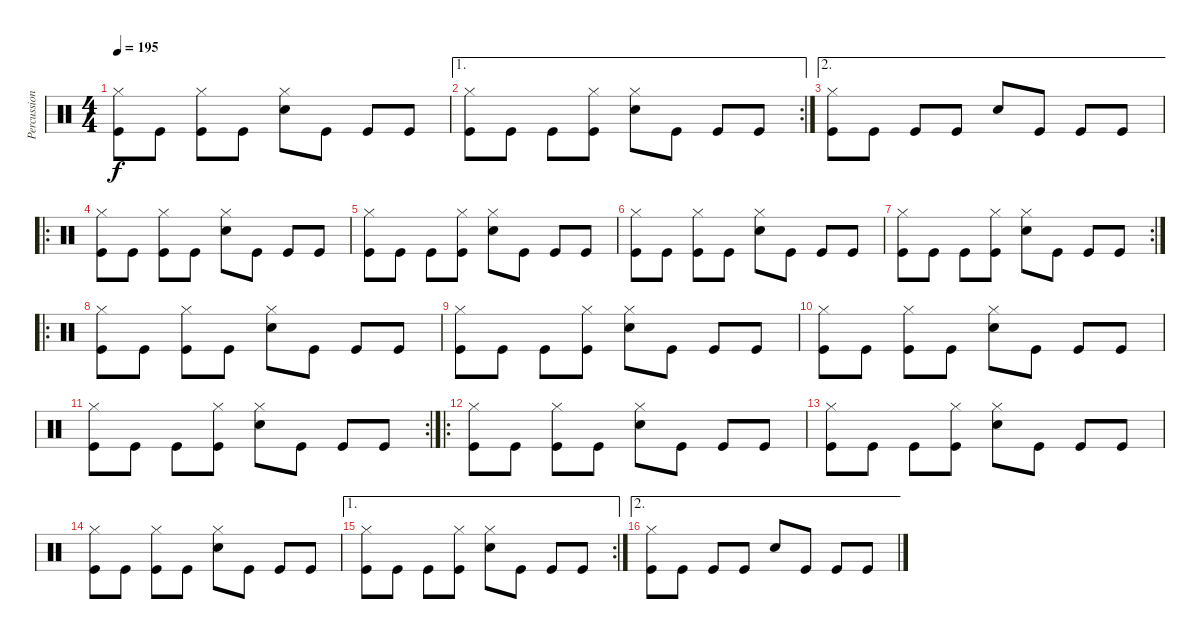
\track ("Percussion" "Percussion") {instrument percussion}
\staff {score}
\articulation defaults
\ts (4 4)
\tempo 195
\clef neutral
\ks c
("Hi-Hat (closed)" "Kick (hit)").8{dy f} "Kick (hit)".8 ("Hi-Hat (closed)" "Kick (hit)").8 "Kick (hit)".8 ("Hi-Hat (closed)" "Snare (hit) 2").8 "Kick (hit)".8 "Kick (hit)".8 "Kick (hit)".8 |
\ae 1
\rc 2
("Hi-Hat (closed)" "Kick (hit)").8 "Kick (hit)".8 "Kick (hit)".8 ("Hi-Hat (closed)" "Kick (hit)").8 ("Hi-Hat (closed)" "Snare (hit) 2").8 "Kick (hit)".8 "Kick (hit)".8 "Kick (hit)".8 |
\ae 2
("Hi-Hat (closed)" "Kick (hit)").8 "Kick (hit)".8 "Kick (hit)".8 "Kick (hit)".8 "Snare (hit) 2".8 "Kick (hit)".8 "Kick (hit)".8 "Kick (hit)".8 |
\ro
("Hi-Hat (closed)" "Kick (hit)").8 "Kick (hit)".8 ("Hi-Hat (closed)" "Kick (hit)").8 "Kick (hit)".8 ("Hi-Hat (closed)" "Snare (hit) 2").8 "Kick (hit)".8 "Kick (hit)".8 "Kick (hit)".8 |
("Hi-Hat (closed)" "Kick (hit)").8 "Kick (hit)".8 "Kick (hit)".8 ("Hi-Hat (closed)" "Kick (hit)").8 ("Hi-Hat (closed)" "Snare (hit) 2").8 "Kick (hit)".8 "Kick (hit)".8 "Kick (hit)".8 |
("Hi-Hat (closed)" "Kick (hit)").8 "Kick (hit)".8 ("Hi-Hat (closed)" "Kick (hit)").8 "Kick (hit)".8 ("Hi-Hat (closed)" "Snare (hit) 2").8 "Kick (hit)".8 "Kick (hit)".8 "Kick (hit)".8 |
\rc 2
("Hi-Hat (closed)" "Kick (hit)").8 "Kick (hit)".8 "Kick (hit)".8 ("Hi-Hat (closed)" "Kick (hit)").8 ("Hi-Hat (closed)" "Snare (hit) 2").8 "Kick (hit)".8 "Kick (hit)".8 "Kick (hit)".8 |
\ro
("Hi-Hat (closed)" "Kick (hit)").8 "Kick (hit)".8 ("Hi-Hat (closed)" "Kick (hit)").8 "Kick (hit)".8 ("Hi-Hat (closed)" "Snare (hit) 2").8 "Kick (hit)".8 "Kick (hit)".8 "Kick (hit)".8 |
("Hi-Hat (closed)" "Kick (hit)").8 "Kick (hit)".8 "Kick (hit)".8 ("Hi-Hat (closed)" "Kick (hit)").8 ("Hi-Hat (closed)" "Snare (hit) 2").8 "Kick (hit)".8 "Kick (hit)".8 "Kick (hit)".8 |
("Hi-Hat (closed)" "Kick (hit)").8 "Kick (hit)".8 ("Hi-Hat (closed)" "Kick (hit)").8 "Kick (hit)".8 ("Hi-Hat (closed)" "Snare (hit) 2").8 "Kick (hit)".8 "Kick (hit)".8 "Kick (hit)".8 |
\rc 2
("Hi-Hat (closed)" "Kick (hit)").8 "Kick (hit)".8 "Kick (hit)".8 ("Hi-Hat (closed)" "Kick (hit)").8 ("Hi-Hat (closed)" "Snare (hit) 2").8 "Kick (hit)".8 "Kick (hit)".8 "Kick (hit)".8 |
\ro
("Hi-Hat (closed)" "Kick (hit)").8 "Kick (hit)".8 ("Hi-Hat (closed)" "Kick (hit)").8 "Kick (hit)".8 ("Hi-Hat (closed)" "Snare (hit) 2").8 "Kick (hit)".8 "Kick (hit)".8 "Kick (hit)".8 |
("Hi-Hat (closed)" "Kick (hit)").8 "Kick (hit)".8 "Kick (hit)".8 ("Hi-Hat (closed)" "Kick (hit)").8 ("Hi-Hat (closed)" "Snare (hit) 2").8 "Kick (hit)".8 "Kick (hit)".8 "Kick (hit)".8 |
("Hi-Hat (closed)" "Kick (hit)").8 "Kick (hit)".8 ("Hi-Hat (closed)" "Kick (hit)").8 "Kick (hit)".8 ("Hi-Hat (closed)" "Snare (hit) 2").8 "Kick (hit)".8 "Kick (hit)".8 "Kick (hit)".8 |
\ae 1
\rc 2
("Hi-Hat (closed)" "Kick (hit)").8 "Kick (hit)".8 "Kick (hit)".8 ("Hi-Hat (closed)" "Kick (hit)").8 ("Hi-Hat (closed)" "Snare (hit) 2").8 "Kick (hit)".8 "Kick (hit)".8 "Kick (hit)".8 |
\ae 2
("Hi-Hat (closed)" "Kick (hit)").8 "Kick (hit)".8 "Kick (hit)".8 "Kick (hit)".8 "Snare (hit) 2".8 "Kick (hit)".8 "Kick (hit)".8 "Kick (hit)".8
